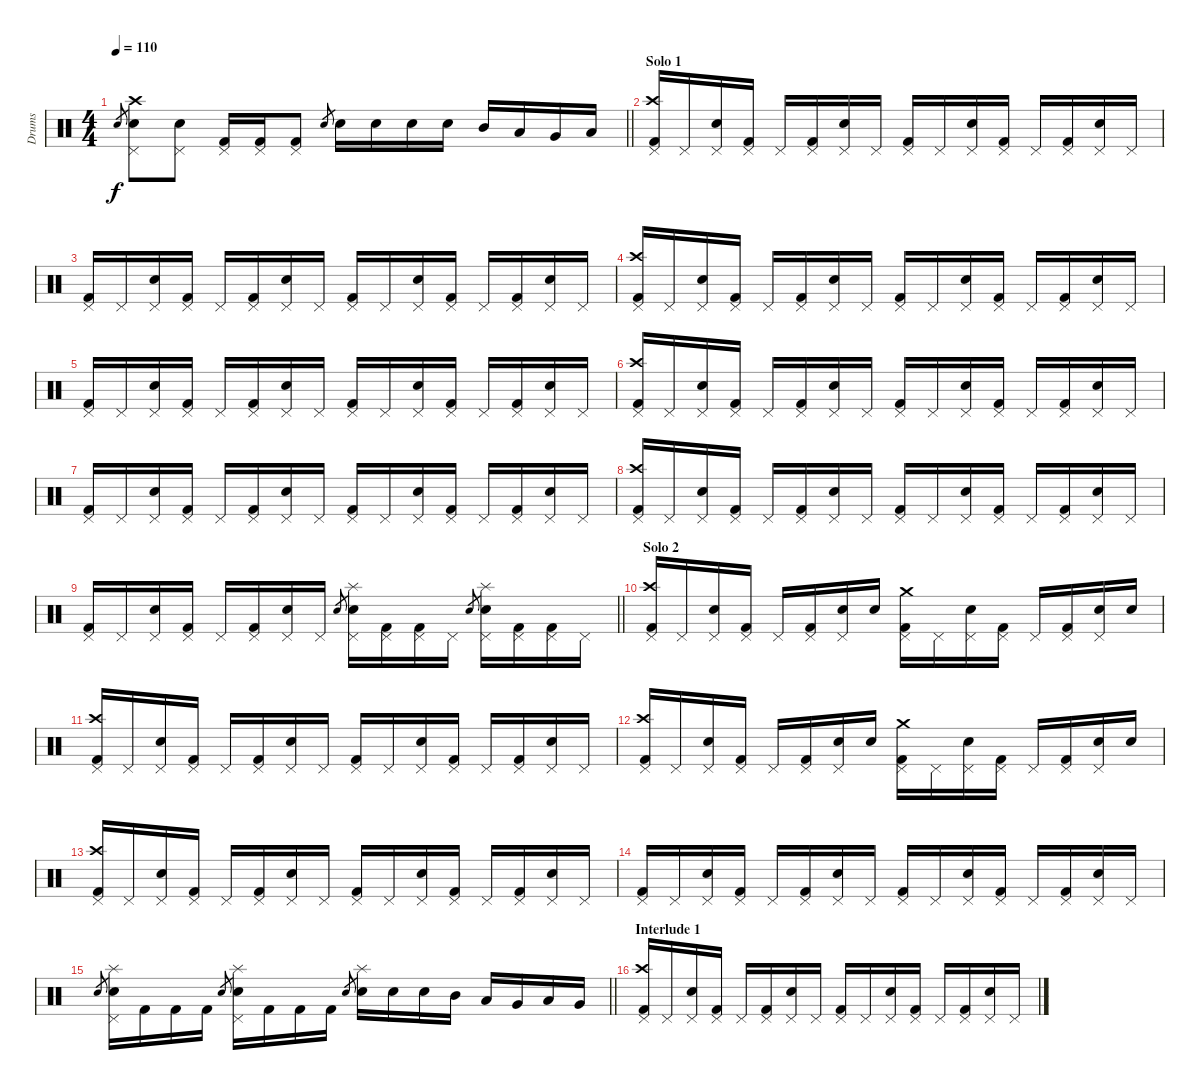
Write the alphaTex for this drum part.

\track ("Drums" "Drums") {instrument percussion}
\staff {score}
\articulation defaults
\ts (4 4)
\tempo 110
\clef neutral
\barLineRight lightlight
\ks c "Snare (hit) 2".8{gr dy f}
("Snare (hit) 2" "Pedal Hi-Hat (hit)" "Crash high (hit)").8 ("Snare (hit) 2" "Pedal Hi-Hat (hit)").8 ("Kick (hit) 2" "Pedal Hi-Hat (hit)").16 ("Kick (hit) 2" "Pedal Hi-Hat (hit)").16 ("Kick (hit) 2" "Pedal Hi-Hat (hit)").8 "Snare (hit) 2".8{gr} "Snare (hit) 2".16 "Snare (hit) 2".16 "Snare (hit) 2".16 "Snare (hit) 2".16 "Mid Tom (hit)".16 "Low Tom (hit)".16 "Very Low Tom (hit)".16 "Low Floor Tom (hit)".16 |
\section ("" "Solo 1")
("Kick (hit) 2" "Pedal Hi-Hat (hit)" "Crash high (hit)").16 "Pedal Hi-Hat (hit)".16 ("Snare (hit) 2" "Pedal Hi-Hat (hit)").16 ("Kick (hit) 2" "Pedal Hi-Hat (hit)").16 "Pedal Hi-Hat (hit)".16 ("Kick (hit) 2" "Pedal Hi-Hat (hit)").16 ("Snare (hit) 2" "Pedal Hi-Hat (hit)").16 "Pedal Hi-Hat (hit)".16 ("Kick (hit) 2" "Pedal Hi-Hat (hit)").16 "Pedal Hi-Hat (hit)".16 ("Snare (hit) 2" "Pedal Hi-Hat (hit)").16 ("Kick (hit) 2" "Pedal Hi-Hat (hit)").16 "Pedal Hi-Hat (hit)".16 ("Kick (hit) 2" "Pedal Hi-Hat (hit)").16 ("Snare (hit) 2" "Pedal Hi-Hat (hit)").16 "Pedal Hi-Hat (hit)".16 |
("Kick (hit) 2" "Pedal Hi-Hat (hit)").16 "Pedal Hi-Hat (hit)".16 ("Snare (hit) 2" "Pedal Hi-Hat (hit)").16 ("Kick (hit) 2" "Pedal Hi-Hat (hit)").16 "Pedal Hi-Hat (hit)".16 ("Kick (hit) 2" "Pedal Hi-Hat (hit)").16 ("Snare (hit) 2" "Pedal Hi-Hat (hit)").16 "Pedal Hi-Hat (hit)".16 ("Kick (hit) 2" "Pedal Hi-Hat (hit)").16 "Pedal Hi-Hat (hit)".16 ("Snare (hit) 2" "Pedal Hi-Hat (hit)").16 ("Kick (hit) 2" "Pedal Hi-Hat (hit)").16 "Pedal Hi-Hat (hit)".16 ("Kick (hit) 2" "Pedal Hi-Hat (hit)").16 ("Snare (hit) 2" "Pedal Hi-Hat (hit)").16 "Pedal Hi-Hat (hit)".16 |
("Kick (hit) 2" "Pedal Hi-Hat (hit)" "Crash high (hit)").16 "Pedal Hi-Hat (hit)".16 ("Snare (hit) 2" "Pedal Hi-Hat (hit)").16 ("Kick (hit) 2" "Pedal Hi-Hat (hit)").16 "Pedal Hi-Hat (hit)".16 ("Kick (hit) 2" "Pedal Hi-Hat (hit)").16 ("Snare (hit) 2" "Pedal Hi-Hat (hit)").16 "Pedal Hi-Hat (hit)".16 ("Kick (hit) 2" "Pedal Hi-Hat (hit)").16 "Pedal Hi-Hat (hit)".16 ("Snare (hit) 2" "Pedal Hi-Hat (hit)").16 ("Kick (hit) 2" "Pedal Hi-Hat (hit)").16 "Pedal Hi-Hat (hit)".16 ("Kick (hit) 2" "Pedal Hi-Hat (hit)").16 ("Snare (hit) 2" "Pedal Hi-Hat (hit)").16 "Pedal Hi-Hat (hit)".16 |
("Kick (hit) 2" "Pedal Hi-Hat (hit)").16 "Pedal Hi-Hat (hit)".16 ("Snare (hit) 2" "Pedal Hi-Hat (hit)").16 ("Kick (hit) 2" "Pedal Hi-Hat (hit)").16 "Pedal Hi-Hat (hit)".16 ("Kick (hit) 2" "Pedal Hi-Hat (hit)").16 ("Snare (hit) 2" "Pedal Hi-Hat (hit)").16 "Pedal Hi-Hat (hit)".16 ("Kick (hit) 2" "Pedal Hi-Hat (hit)").16 "Pedal Hi-Hat (hit)".16 ("Snare (hit) 2" "Pedal Hi-Hat (hit)").16 ("Kick (hit) 2" "Pedal Hi-Hat (hit)").16 "Pedal Hi-Hat (hit)".16 ("Kick (hit) 2" "Pedal Hi-Hat (hit)").16 ("Snare (hit) 2" "Pedal Hi-Hat (hit)").16 "Pedal Hi-Hat (hit)".16 |
("Kick (hit) 2" "Pedal Hi-Hat (hit)" "Crash high (hit)").16 "Pedal Hi-Hat (hit)".16 ("Snare (hit) 2" "Pedal Hi-Hat (hit)").16 ("Kick (hit) 2" "Pedal Hi-Hat (hit)").16 "Pedal Hi-Hat (hit)".16 ("Kick (hit) 2" "Pedal Hi-Hat (hit)").16 ("Snare (hit) 2" "Pedal Hi-Hat (hit)").16 "Pedal Hi-Hat (hit)".16 ("Kick (hit) 2" "Pedal Hi-Hat (hit)").16 "Pedal Hi-Hat (hit)".16 ("Snare (hit) 2" "Pedal Hi-Hat (hit)").16 ("Kick (hit) 2" "Pedal Hi-Hat (hit)").16 "Pedal Hi-Hat (hit)".16 ("Kick (hit) 2" "Pedal Hi-Hat (hit)").16 ("Snare (hit) 2" "Pedal Hi-Hat (hit)").16 "Pedal Hi-Hat (hit)".16 |
("Kick (hit) 2" "Pedal Hi-Hat (hit)").16 "Pedal Hi-Hat (hit)".16 ("Snare (hit) 2" "Pedal Hi-Hat (hit)").16 ("Kick (hit) 2" "Pedal Hi-Hat (hit)").16 "Pedal Hi-Hat (hit)".16 ("Kick (hit) 2" "Pedal Hi-Hat (hit)").16 ("Snare (hit) 2" "Pedal Hi-Hat (hit)").16 "Pedal Hi-Hat (hit)".16 ("Kick (hit) 2" "Pedal Hi-Hat (hit)").16 "Pedal Hi-Hat (hit)".16 ("Snare (hit) 2" "Pedal Hi-Hat (hit)").16 ("Kick (hit) 2" "Pedal Hi-Hat (hit)").16 "Pedal Hi-Hat (hit)".16 ("Kick (hit) 2" "Pedal Hi-Hat (hit)").16 ("Snare (hit) 2" "Pedal Hi-Hat (hit)").16 "Pedal Hi-Hat (hit)".16 |
("Kick (hit) 2" "Pedal Hi-Hat (hit)" "Crash high (hit)").16 "Pedal Hi-Hat (hit)".16 ("Snare (hit) 2" "Pedal Hi-Hat (hit)").16 ("Kick (hit) 2" "Pedal Hi-Hat (hit)").16 "Pedal Hi-Hat (hit)".16 ("Kick (hit) 2" "Pedal Hi-Hat (hit)").16 ("Snare (hit) 2" "Pedal Hi-Hat (hit)").16 "Pedal Hi-Hat (hit)".16 ("Kick (hit) 2" "Pedal Hi-Hat (hit)").16 "Pedal Hi-Hat (hit)".16 ("Snare (hit) 2" "Pedal Hi-Hat (hit)").16 ("Kick (hit) 2" "Pedal Hi-Hat (hit)").16 "Pedal Hi-Hat (hit)".16 ("Kick (hit) 2" "Pedal Hi-Hat (hit)").16 ("Snare (hit) 2" "Pedal Hi-Hat (hit)").16 "Pedal Hi-Hat (hit)".16 |
\barLineRight lightlight
("Kick (hit) 2" "Pedal Hi-Hat (hit)").16 "Pedal Hi-Hat (hit)".16 ("Snare (hit) 2" "Pedal Hi-Hat (hit)").16 ("Kick (hit) 2" "Pedal Hi-Hat (hit)").16 "Pedal Hi-Hat (hit)".16 ("Kick (hit) 2" "Pedal Hi-Hat (hit)").16 ("Snare (hit) 2" "Pedal Hi-Hat (hit)").16 "Pedal Hi-Hat (hit)".16 "Snare (hit) 2".8{gr} ("Snare (hit) 2" "Pedal Hi-Hat (hit)" "Splash (hit)").16 ("Kick (hit) 2" "Pedal Hi-Hat (hit)").16 ("Kick (hit) 2" "Pedal Hi-Hat (hit)").16 "Pedal Hi-Hat (hit)".16 "Snare (hit) 2".8{gr} ("Snare (hit) 2" "Pedal Hi-Hat (hit)" "Splash (hit)").16 ("Kick (hit) 2" "Pedal Hi-Hat (hit)").16 ("Kick (hit) 2" "Pedal Hi-Hat (hit)").16 "Pedal Hi-Hat (hit)".16 |
\section ("" "Solo 2")
("Kick (hit) 2" "Pedal Hi-Hat (hit)" "Crash high (hit)").16 "Pedal Hi-Hat (hit)".16 ("Snare (hit) 2" "Pedal Hi-Hat (hit)").16 ("Kick (hit) 2" "Pedal Hi-Hat (hit)").16 "Pedal Hi-Hat (hit)".16 ("Kick (hit) 2" "Pedal Hi-Hat (hit)").16 ("Snare (hit) 2" "Pedal Hi-Hat (hit)").16 "Snare (hit) 2".16 ("Kick (hit) 2" "Pedal Hi-Hat (hit)" "Crash medium (hit)").16 "Pedal Hi-Hat (hit)".16 ("Snare (hit) 2" "Pedal Hi-Hat (hit)").16 ("Kick (hit) 2" "Pedal Hi-Hat (hit)").16 "Pedal Hi-Hat (hit)".16 ("Kick (hit) 2" "Pedal Hi-Hat (hit)").16 ("Snare (hit) 2" "Pedal Hi-Hat (hit)").16 "Snare (hit) 2".16 |
("Kick (hit) 2" "Pedal Hi-Hat (hit)" "Crash high (hit)").16 "Pedal Hi-Hat (hit)".16 ("Snare (hit) 2" "Pedal Hi-Hat (hit)").16 ("Kick (hit) 2" "Pedal Hi-Hat (hit)").16 "Pedal Hi-Hat (hit)".16 ("Kick (hit) 2" "Pedal Hi-Hat (hit)").16 ("Snare (hit) 2" "Pedal Hi-Hat (hit)").16 "Pedal Hi-Hat (hit)".16 ("Kick (hit) 2" "Pedal Hi-Hat (hit)").16 "Pedal Hi-Hat (hit)".16 ("Snare (hit) 2" "Pedal Hi-Hat (hit)").16 ("Kick (hit) 2" "Pedal Hi-Hat (hit)").16 "Pedal Hi-Hat (hit)".16 ("Kick (hit) 2" "Pedal Hi-Hat (hit)").16 ("Snare (hit) 2" "Pedal Hi-Hat (hit)").16 "Pedal Hi-Hat (hit)".16 |
("Kick (hit) 2" "Pedal Hi-Hat (hit)" "Crash high (hit)").16 "Pedal Hi-Hat (hit)".16 ("Snare (hit) 2" "Pedal Hi-Hat (hit)").16 ("Kick (hit) 2" "Pedal Hi-Hat (hit)").16 "Pedal Hi-Hat (hit)".16 ("Kick (hit) 2" "Pedal Hi-Hat (hit)").16 ("Snare (hit) 2" "Pedal Hi-Hat (hit)").16 "Snare (hit) 2".16 ("Kick (hit) 2" "Pedal Hi-Hat (hit)" "Crash medium (hit)").16 "Pedal Hi-Hat (hit)".16 ("Snare (hit) 2" "Pedal Hi-Hat (hit)").16 ("Kick (hit) 2" "Pedal Hi-Hat (hit)").16 "Pedal Hi-Hat (hit)".16 ("Kick (hit) 2" "Pedal Hi-Hat (hit)").16 ("Snare (hit) 2" "Pedal Hi-Hat (hit)").16 "Snare (hit) 2".16 |
("Kick (hit) 2" "Pedal Hi-Hat (hit)" "Crash high (hit)").16 "Pedal Hi-Hat (hit)".16 ("Snare (hit) 2" "Pedal Hi-Hat (hit)").16 ("Kick (hit) 2" "Pedal Hi-Hat (hit)").16 "Pedal Hi-Hat (hit)".16 ("Kick (hit) 2" "Pedal Hi-Hat (hit)").16 ("Snare (hit) 2" "Pedal Hi-Hat (hit)").16 "Pedal Hi-Hat (hit)".16 ("Kick (hit) 2" "Pedal Hi-Hat (hit)").16 "Pedal Hi-Hat (hit)".16 ("Snare (hit) 2" "Pedal Hi-Hat (hit)").16 ("Kick (hit) 2" "Pedal Hi-Hat (hit)").16 "Pedal Hi-Hat (hit)".16 ("Kick (hit) 2" "Pedal Hi-Hat (hit)").16 ("Snare (hit) 2" "Pedal Hi-Hat (hit)").16 "Pedal Hi-Hat (hit)".16 |
("Kick (hit) 2" "Pedal Hi-Hat (hit)").16 "Pedal Hi-Hat (hit)".16 ("Snare (hit) 2" "Pedal Hi-Hat (hit)").16 ("Kick (hit) 2" "Pedal Hi-Hat (hit)").16 "Pedal Hi-Hat (hit)".16 ("Kick (hit) 2" "Pedal Hi-Hat (hit)").16 ("Snare (hit) 2" "Pedal Hi-Hat (hit)").16 "Pedal Hi-Hat (hit)".16 ("Kick (hit) 2" "Pedal Hi-Hat (hit)").16 "Pedal Hi-Hat (hit)".16 ("Snare (hit) 2" "Pedal Hi-Hat (hit)").16 ("Kick (hit) 2" "Pedal Hi-Hat (hit)").16 "Pedal Hi-Hat (hit)".16 ("Kick (hit) 2" "Pedal Hi-Hat (hit)").16 ("Snare (hit) 2" "Pedal Hi-Hat (hit)").16 "Pedal Hi-Hat (hit)".16 |
\barLineRight lightlight "Snare (hit) 2".8{gr}
("Snare (hit) 2" "Pedal Hi-Hat (hit)" "Splash (hit)").16 "Kick (hit) 2".16 "Kick (hit) 2".16 "Kick (hit) 2".16 "Snare (hit) 2".8{gr} ("Snare (hit) 2" "Pedal Hi-Hat (hit)" "Splash (hit)").16 "Kick (hit) 2".16 "Kick (hit) 2".16 "Kick (hit) 2".16 "Snare (hit) 2".8{gr} ("Snare (hit) 2" "Splash (hit)").16 "Snare (hit) 2".16 "Snare (hit) 2".16 "Mid Tom (hit)".16 "Low Tom (hit)".16 "Very Low Tom (hit)".16 "Low Floor Tom (hit)".16 "Very Low Tom (hit)".16 |
\section ("" "Interlude 1")
("Kick (hit) 2" "Pedal Hi-Hat (hit)" "Crash high (hit)").16 "Pedal Hi-Hat (hit)".16 ("Snare (hit) 2" "Pedal Hi-Hat (hit)").16 ("Kick (hit) 2" "Pedal Hi-Hat (hit)").16 "Pedal Hi-Hat (hit)".16 ("Kick (hit) 2" "Pedal Hi-Hat (hit)").16 ("Snare (hit) 2" "Pedal Hi-Hat (hit)").16 "Pedal Hi-Hat (hit)".16 ("Kick (hit) 2" "Pedal Hi-Hat (hit)").16 "Pedal Hi-Hat (hit)".16 ("Snare (hit) 2" "Pedal Hi-Hat (hit)").16 ("Kick (hit) 2" "Pedal Hi-Hat (hit)").16 "Pedal Hi-Hat (hit)".16 ("Kick (hit) 2" "Pedal Hi-Hat (hit)").16 ("Snare (hit) 2" "Pedal Hi-Hat (hit)").16 "Pedal Hi-Hat (hit)".16
